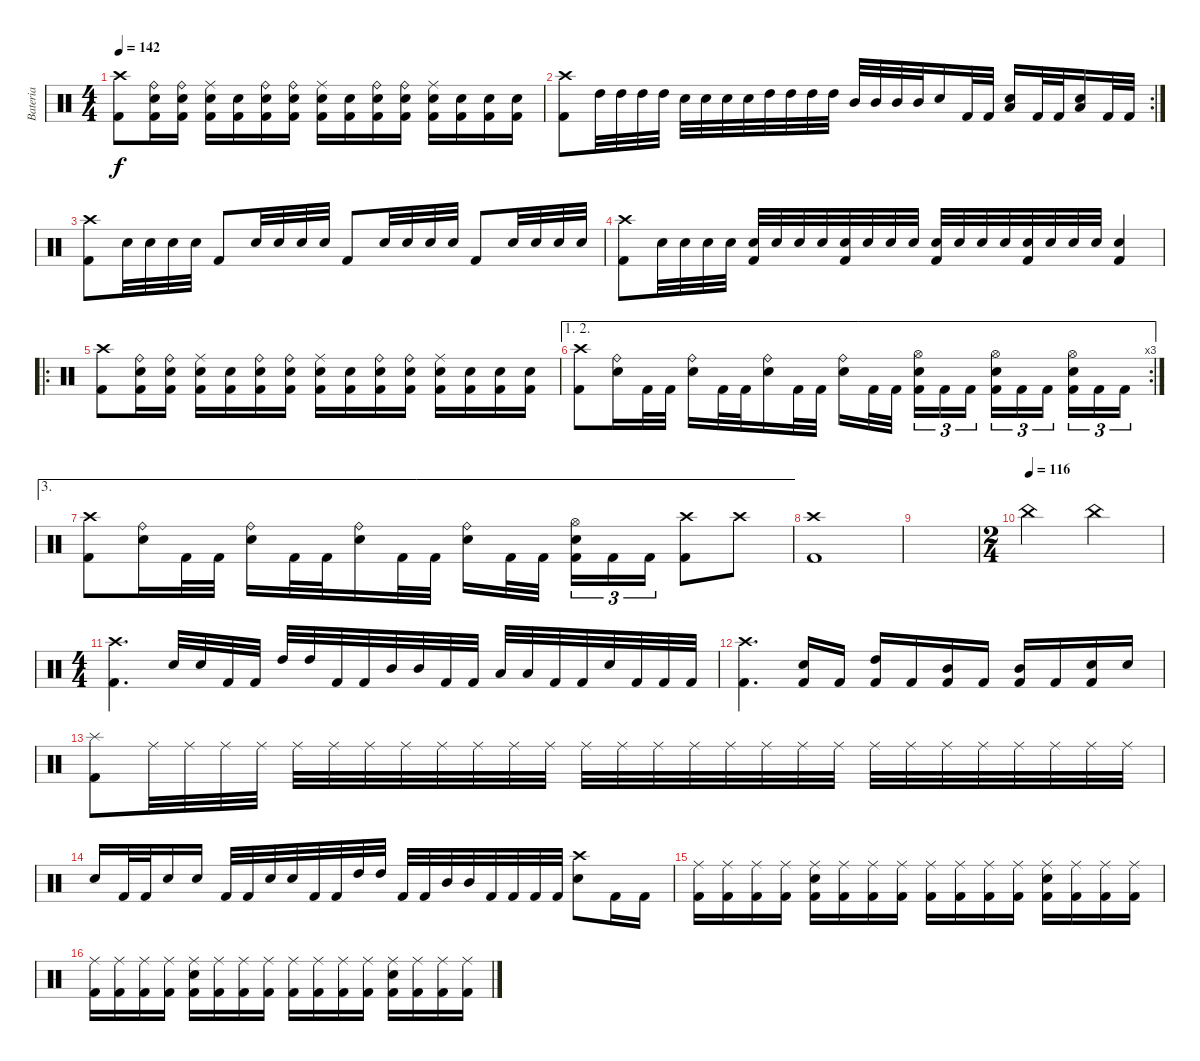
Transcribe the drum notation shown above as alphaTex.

\track ("Bateria" "Bateria") {instrument percussion}
\staff {score}
\articulation defaults
\ts (4 4)
\tempo 142
\clef neutral
\ks c
("Crash high (hit)" "Kick (hit) 2").8{dy f} ("Ride (bell)" "Electric Snare (hit)" "Kick (hit) 2").16 ("Ride (bell)" "Electric Snare (hit)" "Kick (hit) 2").16 ("Ride (middle)" "Electric Snare (hit)" "Kick (hit) 2").16 ("Electric Snare (hit)" "Kick (hit) 2").16 ("Ride (bell)" "Electric Snare (hit)" "Kick (hit) 2").16 ("Ride (bell)" "Electric Snare (hit)" "Kick (hit) 2").16 ("Ride (middle)" "Electric Snare (hit)" "Kick (hit) 2").16 ("Electric Snare (hit)" "Kick (hit) 2").16 ("Ride (bell)" "Electric Snare (hit)" "Kick (hit) 2").16 ("Ride (bell)" "Electric Snare (hit)" "Kick (hit) 2").16 ("Ride (middle)" "Electric Snare (hit)" "Kick (hit) 2").16 ("Electric Snare (hit)" "Kick (hit) 2").16 ("Electric Snare (hit)" "Kick (hit) 2").16 ("Electric Snare (hit)" "Kick (hit) 2").16 |
\rc 2
("Crash high (hit)" "Kick (hit) 2").8 "High Tom (hit)".32 "High Tom (hit)".32 "High Tom (hit)".32 "High Tom (hit)".32 "Electric Snare (hit)".32 "Electric Snare (hit)".32 "Electric Snare (hit)".32 "Electric Snare (hit)".32 "High Tom (hit)".32 "High Tom (hit)".32 "High Tom (hit)".32 "High Tom (hit)".32 "Mid Tom (hit)".32 "Mid Tom (hit)".32 "Mid Tom (hit)".32 "Mid Tom (hit)".32 "Electric Snare (hit)".16 "Kick (hit) 2".32 "Kick (hit) 2".32 ("Low Tom (hit)" "Electric Snare (hit)").16 "Kick (hit) 2".32 "Kick (hit) 2".32 ("Low Tom (hit)" "Electric Snare (hit)").16 "Kick (hit) 2".32 "Kick (hit) 2".32 |
("Crash high (hit)" "Kick (hit) 2").8 "Electric Snare (hit)".32 "Electric Snare (hit)".32 "Electric Snare (hit)".32 "Electric Snare (hit)".32 "Kick (hit) 2".8 "Electric Snare (hit)".32 "Electric Snare (hit)".32 "Electric Snare (hit)".32 "Electric Snare (hit)".32 "Kick (hit) 2".8 "Electric Snare (hit)".32 "Electric Snare (hit)".32 "Electric Snare (hit)".32 "Electric Snare (hit)".32 "Kick (hit) 2".8 "Electric Snare (hit)".32 "Electric Snare (hit)".32 "Electric Snare (hit)".32 "Electric Snare (hit)".32 |
("Crash high (hit)" "Kick (hit) 2").8 "Electric Snare (hit)".32 "Electric Snare (hit)".32 "Electric Snare (hit)".32 "Electric Snare (hit)".32 ("Electric Snare (hit)" "Kick (hit) 2").32 "Electric Snare (hit)".32 "Electric Snare (hit)".32 "Electric Snare (hit)".32 ("Electric Snare (hit)" "Kick (hit) 2").32 "Electric Snare (hit)".32 "Electric Snare (hit)".32 "Electric Snare (hit)".32 ("Electric Snare (hit)" "Kick (hit) 2").32 "Electric Snare (hit)".32 "Electric Snare (hit)".32 "Electric Snare (hit)".32 ("Electric Snare (hit)" "Kick (hit) 2").32 "Electric Snare (hit)".32 "Electric Snare (hit)".32 "Electric Snare (hit)".32 ("Electric Snare (hit)" "Kick (hit) 2").4 |
\ro
("Crash high (hit)" "Kick (hit) 2").8 ("Ride (bell)" "Electric Snare (hit)" "Kick (hit) 2").16 ("Ride (bell)" "Electric Snare (hit)" "Kick (hit) 2").16 ("Ride (middle)" "Electric Snare (hit)" "Kick (hit) 2").16 ("Electric Snare (hit)" "Kick (hit) 2").16 ("Ride (bell)" "Electric Snare (hit)" "Kick (hit) 2").16 ("Ride (bell)" "Electric Snare (hit)" "Kick (hit) 2").16 ("Ride (middle)" "Electric Snare (hit)" "Kick (hit) 2").16 ("Electric Snare (hit)" "Kick (hit) 2").16 ("Ride (bell)" "Electric Snare (hit)" "Kick (hit) 2").16 ("Ride (bell)" "Electric Snare (hit)" "Kick (hit) 2").16 ("Ride (middle)" "Electric Snare (hit)" "Kick (hit) 2").16 ("Electric Snare (hit)" "Kick (hit) 2").16 ("Electric Snare (hit)" "Kick (hit) 2").16 ("Electric Snare (hit)" "Kick (hit) 2").16 |
\ae (1 2)
\rc 3
("Crash high (hit)" "Kick (hit) 2").8 ("Ride (bell)" "Electric Snare (hit)").16 "Kick (hit) 2".32 "Kick (hit) 2".32 ("Ride (bell)" "Electric Snare (hit)").16 "Kick (hit) 2".32 "Kick (hit) 2".32 ("Ride (bell)" "Electric Snare (hit)").16 "Kick (hit) 2".32 "Kick (hit) 2".32 ("Ride (bell)" "Electric Snare (hit)").16 "Kick (hit) 2".32 "Kick (hit) 2".32{beam splitsecondary} ("Hi-Hat (open)" "Electric Snare (hit)" "Kick (hit) 2").16{tu (3 2)} "Kick (hit) 2".16{tu (3 2)} "Kick (hit) 2".16{tu (3 2)} ("Hi-Hat (open)" "Electric Snare (hit)" "Kick (hit) 2").16{tu (3 2)} "Kick (hit) 2".16{tu (3 2)} "Kick (hit) 2".16{tu (3 2) beam splitsecondary} ("Hi-Hat (open)" "Electric Snare (hit)" "Kick (hit) 2").16{tu (3 2)} "Kick (hit) 2".16{tu (3 2)} "Kick (hit) 2".16{tu (3 2)} |
\ae 3
("Crash high (hit)" "Kick (hit) 2").8 ("Ride (bell)" "Electric Snare (hit)").16 "Kick (hit) 2".32 "Kick (hit) 2".32 ("Ride (bell)" "Electric Snare (hit)").16 "Kick (hit) 2".32 "Kick (hit) 2".32 ("Ride (bell)" "Electric Snare (hit)").16 "Kick (hit) 2".32 "Kick (hit) 2".32 ("Ride (bell)" "Electric Snare (hit)").16 "Kick (hit) 2".32 "Kick (hit) 2".32{beam splitsecondary} ("Hi-Hat (open)" "Electric Snare (hit)" "Kick (hit) 2").16{tu (3 2)} "Kick (hit) 2".16{tu (3 2)} "Kick (hit) 2".16{tu (3 2)} ("Crash high (hit)" "Kick (hit) 2").8 "Crash high (hit)".8 |
("Crash high (hit)" "Kick (hit) 2").1 |
|
\ts (2 4)
\tempo (116)
"China (hit)".4 "China (hit)".4 |
\ts (4 4)
("Crash high (hit)" "Kick (hit) 2").4{d} "Electric Snare (hit)".32 "Electric Snare (hit)".32 "Kick (hit) 2".32 "Kick (hit) 2".32 "High Tom (hit)".32 "High Tom (hit)".32 "Kick (hit) 2".32 "Kick (hit) 2".32 "Mid Tom (hit)".32 "Mid Tom (hit)".32 "Kick (hit) 2".32 "Kick (hit) 2".32 "Low Tom (hit)".32 "Low Tom (hit)".32 "Kick (hit) 2".32 "Kick (hit) 2".32 "Electric Snare (hit)".32 "Kick (hit) 2".32 "Kick (hit) 2".32 "Kick (hit) 2".32 |
("Crash high (hit)" "Kick (hit) 2").4{d} ("Electric Snare (hit)" "Kick (hit) 2").16 "Kick (hit) 2".16 ("High Tom (hit)" "Kick (hit) 2").16 "Kick (hit) 2".16 ("Mid Tom (hit)" "Kick (hit) 2").16 "Kick (hit) 2".16 ("Mid Tom (hit)" "Kick (hit) 2").16 "Kick (hit) 2".16 ("Electric Snare (hit)" "Kick (hit) 2").16 "Electric Snare (hit)".16 |
("Splash (hit)" "Kick (hit) 2").8 "Ride (middle)".32 "Ride (middle)".32 "Ride (middle)".32 "Ride (middle)".32 "Ride (middle)".32 "Ride (middle)".32 "Ride (middle)".32 "Ride (middle)".32 "Ride (middle)".32 "Ride (middle)".32 "Ride (middle)".32 "Ride (middle)".32 "Ride (middle)".32 "Ride (middle)".32 "Ride (middle)".32 "Ride (middle)".32 "Ride (middle)".32 "Ride (middle)".32 "Ride (middle)".32 "Ride (middle)".32 "Ride (middle)".32 "Ride (middle)".32 "Ride (middle)".32 "Ride (middle)".32 "Ride (middle)".32 "Ride (middle)".32 "Ride (middle)".32 "Ride (middle)".32 |
"Electric Snare (hit)".16 "Kick (hit) 2".32 "Kick (hit) 2".32 "Electric Snare (hit)".16 "Electric Snare (hit)".16 "Kick (hit) 2".32 "Kick (hit) 2".32 "Electric Snare (hit)".32 "Electric Snare (hit)".32 "Kick (hit) 2".32 "Kick (hit) 2".32 "High Tom (hit)".32 "High Tom (hit)".32 "Kick (hit) 2".32 "Kick (hit) 2".32 "Mid Tom (hit)".32 "Mid Tom (hit)".32 "Kick (hit) 2".32 "Kick (hit) 2".32 "Kick (hit) 2".32 "Kick (hit) 2".32 ("Crash high (hit)" "Electric Snare (hit)").8 "Kick (hit) 2".16 "Kick (hit) 2".16 |
("Ride (middle)" "Kick (hit) 2").16 ("Ride (middle)" "Kick (hit) 2").16 ("Ride (middle)" "Kick (hit) 2").16 ("Ride (middle)" "Kick (hit) 2").16 ("Ride (middle)" "Electric Snare (hit)" "Kick (hit) 2").16 ("Ride (middle)" "Kick (hit) 2").16 ("Ride (middle)" "Kick (hit) 2").16 ("Ride (middle)" "Kick (hit) 2").16 ("Ride (middle)" "Kick (hit) 2").16 ("Ride (middle)" "Kick (hit) 2").16 ("Ride (middle)" "Kick (hit) 2").16 ("Ride (middle)" "Kick (hit) 2").16 ("Ride (middle)" "Electric Snare (hit)" "Kick (hit) 2").16 ("Ride (middle)" "Kick (hit) 2").16 ("Ride (middle)" "Kick (hit) 2").16 ("Ride (middle)" "Kick (hit) 2").16 |
("Ride (middle)" "Kick (hit) 2").16 ("Ride (middle)" "Kick (hit) 2").16 ("Ride (middle)" "Kick (hit) 2").16 ("Ride (middle)" "Kick (hit) 2").16 ("Ride (middle)" "Electric Snare (hit)" "Kick (hit) 2").16 ("Ride (middle)" "Kick (hit) 2").16 ("Ride (middle)" "Kick (hit) 2").16 ("Ride (middle)" "Kick (hit) 2").16 ("Ride (middle)" "Kick (hit) 2").16 ("Ride (middle)" "Kick (hit) 2").16 ("Ride (middle)" "Kick (hit) 2").16 ("Ride (middle)" "Kick (hit) 2").16 ("Ride (middle)" "Electric Snare (hit)" "Kick (hit) 2").16 ("Ride (middle)" "Kick (hit) 2").16 ("Ride (middle)" "Kick (hit) 2").16 ("Ride (middle)" "Kick (hit) 2").16
